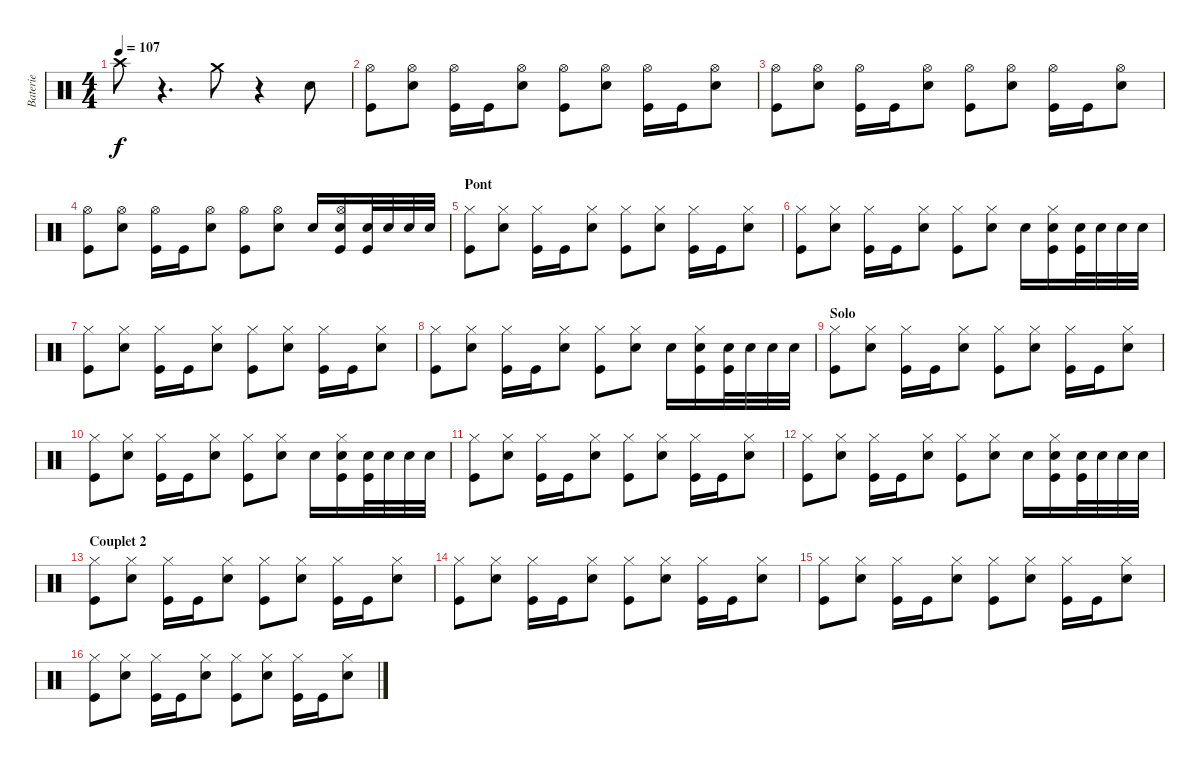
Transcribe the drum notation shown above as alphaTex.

\track ("Baterie" "Baterie") {instrument percussion}
\staff {score}
\articulation defaults
\ts (4 4)
\tempo 107
\clef neutral
\ks c "Crash high (hit)".8{dy f}
r.4{d} "Crash medium (hit)".8 r.4 "Electric Snare (hit)".8 |
("Hi-Hat (open)" "Kick (hit)").8 ("Hi-Hat (open)" "Electric Snare (hit)").8 ("Hi-Hat (open)" "Kick (hit)").16 "Kick (hit)".16 ("Hi-Hat (open)" "Electric Snare (hit)").8 ("Hi-Hat (open)" "Kick (hit)").8 ("Hi-Hat (open)" "Electric Snare (hit)").8 ("Hi-Hat (open)" "Kick (hit)").16 "Kick (hit)".16 ("Hi-Hat (open)" "Electric Snare (hit)").8 |
("Hi-Hat (open)" "Kick (hit)").8 ("Hi-Hat (open)" "Electric Snare (hit)").8 ("Hi-Hat (open)" "Kick (hit)").16 "Kick (hit)".16 ("Hi-Hat (open)" "Electric Snare (hit)").8 ("Hi-Hat (open)" "Kick (hit)").8 ("Hi-Hat (open)" "Electric Snare (hit)").8 ("Hi-Hat (open)" "Kick (hit)").16 "Kick (hit)".16 ("Hi-Hat (open)" "Electric Snare (hit)").8 |
("Hi-Hat (open)" "Kick (hit)").8 ("Hi-Hat (open)" "Electric Snare (hit)").8 ("Hi-Hat (open)" "Kick (hit)").16 "Kick (hit)".16 ("Hi-Hat (open)" "Electric Snare (hit)").8 ("Hi-Hat (open)" "Kick (hit)").8 ("Hi-Hat (open)" "Electric Snare (hit)").8 "Electric Snare (hit)".16 ("Hi-Hat (open)" "Electric Snare (hit)" "Kick (hit)").16 ("Electric Snare (hit)" "Kick (hit)").32 "Electric Snare (hit)".32 "Electric Snare (hit)".32 "Electric Snare (hit)".32 |
\section ("" "Pont")
("Hi-Hat (closed)" "Kick (hit)").8 ("Hi-Hat (closed)" "Electric Snare (hit)").8 ("Hi-Hat (closed)" "Kick (hit)").16 "Kick (hit)".16 ("Hi-Hat (closed)" "Electric Snare (hit)").8 ("Hi-Hat (closed)" "Kick (hit)").8 ("Hi-Hat (closed)" "Electric Snare (hit)").8 ("Hi-Hat (closed)" "Kick (hit)").16 "Kick (hit)".16 ("Hi-Hat (closed)" "Electric Snare (hit)").8 |
("Hi-Hat (closed)" "Kick (hit)").8 ("Hi-Hat (closed)" "Electric Snare (hit)").8 ("Hi-Hat (closed)" "Kick (hit)").16 "Kick (hit)".16 ("Hi-Hat (closed)" "Electric Snare (hit)").8 ("Hi-Hat (closed)" "Kick (hit)").8 ("Hi-Hat (closed)" "Electric Snare (hit)").8 "Electric Snare (hit)".16 ("Hi-Hat (closed)" "Electric Snare (hit)" "Kick (hit)").16 ("Electric Snare (hit)" "Kick (hit)").32 "Electric Snare (hit)".32 "Electric Snare (hit)".32 "Electric Snare (hit)".32 |
("Hi-Hat (closed)" "Kick (hit)").8 ("Hi-Hat (closed)" "Electric Snare (hit)").8 ("Hi-Hat (closed)" "Kick (hit)").16 "Kick (hit)".16 ("Hi-Hat (closed)" "Electric Snare (hit)").8 ("Hi-Hat (closed)" "Kick (hit)").8 ("Hi-Hat (closed)" "Electric Snare (hit)").8 ("Hi-Hat (closed)" "Kick (hit)").16 "Kick (hit)".16 ("Hi-Hat (closed)" "Electric Snare (hit)").8 |
("Hi-Hat (closed)" "Kick (hit)").8 ("Hi-Hat (closed)" "Electric Snare (hit)").8 ("Hi-Hat (closed)" "Kick (hit)").16 "Kick (hit)".16 ("Hi-Hat (closed)" "Electric Snare (hit)").8 ("Hi-Hat (closed)" "Kick (hit)").8 ("Hi-Hat (closed)" "Electric Snare (hit)").8 "Electric Snare (hit)".16 ("Hi-Hat (closed)" "Electric Snare (hit)" "Kick (hit)").16 ("Electric Snare (hit)" "Kick (hit)").32 "Electric Snare (hit)".32 "Electric Snare (hit)".32 "Electric Snare (hit)".32 |
\section ("" "Solo")
("Hi-Hat (closed)" "Kick (hit)").8 ("Hi-Hat (closed)" "Electric Snare (hit)").8 ("Hi-Hat (closed)" "Kick (hit)").16 "Kick (hit)".16 ("Hi-Hat (closed)" "Electric Snare (hit)").8 ("Hi-Hat (closed)" "Kick (hit)").8 ("Hi-Hat (closed)" "Electric Snare (hit)").8 ("Hi-Hat (closed)" "Kick (hit)").16 "Kick (hit)".16 ("Hi-Hat (closed)" "Electric Snare (hit)").8 |
("Hi-Hat (closed)" "Kick (hit)").8 ("Hi-Hat (closed)" "Electric Snare (hit)").8 ("Hi-Hat (closed)" "Kick (hit)").16 "Kick (hit)".16 ("Hi-Hat (closed)" "Electric Snare (hit)").8 ("Hi-Hat (closed)" "Kick (hit)").8 ("Hi-Hat (closed)" "Electric Snare (hit)").8 "Electric Snare (hit)".16 ("Hi-Hat (closed)" "Electric Snare (hit)" "Kick (hit)").16 ("Electric Snare (hit)" "Kick (hit)").32 "Electric Snare (hit)".32 "Electric Snare (hit)".32 "Electric Snare (hit)".32 |
("Hi-Hat (closed)" "Kick (hit)").8 ("Hi-Hat (closed)" "Electric Snare (hit)").8 ("Hi-Hat (closed)" "Kick (hit)").16 "Kick (hit)".16 ("Hi-Hat (closed)" "Electric Snare (hit)").8 ("Hi-Hat (closed)" "Kick (hit)").8 ("Hi-Hat (closed)" "Electric Snare (hit)").8 ("Hi-Hat (closed)" "Kick (hit)").16 "Kick (hit)".16 ("Hi-Hat (closed)" "Electric Snare (hit)").8 |
("Hi-Hat (closed)" "Kick (hit)").8 ("Hi-Hat (closed)" "Electric Snare (hit)").8 ("Hi-Hat (closed)" "Kick (hit)").16 "Kick (hit)".16 ("Hi-Hat (closed)" "Electric Snare (hit)").8 ("Hi-Hat (closed)" "Kick (hit)").8 ("Hi-Hat (closed)" "Electric Snare (hit)").8 "Electric Snare (hit)".16 ("Hi-Hat (closed)" "Electric Snare (hit)" "Kick (hit)").16 ("Electric Snare (hit)" "Kick (hit)").32 "Electric Snare (hit)".32 "Electric Snare (hit)".32 "Electric Snare (hit)".32 |
\section ("" "Couplet 2")
("Hi-Hat (closed)" "Kick (hit)").8 ("Hi-Hat (closed)" "Electric Snare (hit)").8 ("Hi-Hat (closed)" "Kick (hit)").16 "Kick (hit)".16 ("Hi-Hat (closed)" "Electric Snare (hit)").8 ("Hi-Hat (closed)" "Kick (hit)").8 ("Hi-Hat (closed)" "Electric Snare (hit)").8 ("Hi-Hat (closed)" "Kick (hit)").16 "Kick (hit)".16 ("Hi-Hat (closed)" "Electric Snare (hit)").8 |
("Hi-Hat (closed)" "Kick (hit)").8 ("Hi-Hat (closed)" "Electric Snare (hit)").8 ("Hi-Hat (closed)" "Kick (hit)").16 "Kick (hit)".16 ("Hi-Hat (closed)" "Electric Snare (hit)").8 ("Hi-Hat (closed)" "Kick (hit)").8 ("Hi-Hat (closed)" "Electric Snare (hit)").8 ("Hi-Hat (closed)" "Kick (hit)").16 "Kick (hit)".16 ("Hi-Hat (closed)" "Electric Snare (hit)").8 |
("Hi-Hat (closed)" "Kick (hit)").8 ("Hi-Hat (closed)" "Electric Snare (hit)").8 ("Hi-Hat (closed)" "Kick (hit)").16 "Kick (hit)".16 ("Hi-Hat (closed)" "Electric Snare (hit)").8 ("Hi-Hat (closed)" "Kick (hit)").8 ("Hi-Hat (closed)" "Electric Snare (hit)").8 ("Hi-Hat (closed)" "Kick (hit)").16 "Kick (hit)".16 ("Hi-Hat (closed)" "Electric Snare (hit)").8 |
("Hi-Hat (closed)" "Kick (hit)").8 ("Hi-Hat (closed)" "Electric Snare (hit)").8 ("Hi-Hat (closed)" "Kick (hit)").16 "Kick (hit)".16 ("Hi-Hat (closed)" "Electric Snare (hit)").8 ("Hi-Hat (closed)" "Kick (hit)").8 ("Hi-Hat (closed)" "Electric Snare (hit)").8 ("Hi-Hat (closed)" "Kick (hit)").16 "Kick (hit)".16 ("Hi-Hat (closed)" "Electric Snare (hit)").8
